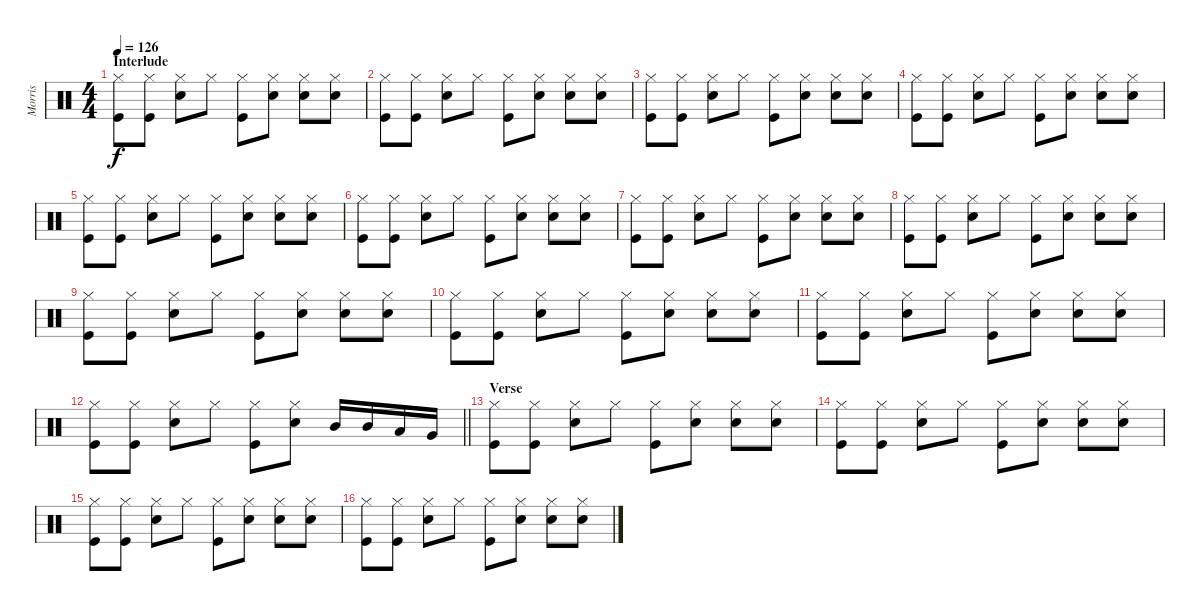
\track ("Morris" "Morris") {instrument percussion}
\staff {score}
\articulation defaults
\ts (4 4)
\section ("" "Interlude")
\tempo 126
\clef neutral
\ks c
("Hi-Hat (closed)" "Kick (hit)").8{dy f} ("Hi-Hat (closed)" "Kick (hit)").8 ("Hi-Hat (closed)" "Electric Snare (hit)").8 "Hi-Hat (closed)".8 ("Hi-Hat (closed)" "Kick (hit)").8 ("Hi-Hat (closed)" "Electric Snare (hit)").8 ("Hi-Hat (closed)" "Electric Snare (hit)").8 ("Hi-Hat (closed)" "Electric Snare (hit)").8 |
("Hi-Hat (closed)" "Kick (hit)").8 ("Hi-Hat (closed)" "Kick (hit)").8 ("Hi-Hat (closed)" "Electric Snare (hit)").8 "Hi-Hat (closed)".8 ("Hi-Hat (closed)" "Kick (hit)").8 ("Hi-Hat (closed)" "Electric Snare (hit)").8 ("Hi-Hat (closed)" "Electric Snare (hit)").8 ("Hi-Hat (closed)" "Electric Snare (hit)").8 |
("Hi-Hat (closed)" "Kick (hit)").8 ("Hi-Hat (closed)" "Kick (hit)").8 ("Hi-Hat (closed)" "Electric Snare (hit)").8 "Hi-Hat (closed)".8 ("Hi-Hat (closed)" "Kick (hit)").8 ("Hi-Hat (closed)" "Electric Snare (hit)").8 ("Hi-Hat (closed)" "Electric Snare (hit)").8 ("Hi-Hat (closed)" "Electric Snare (hit)").8 |
("Hi-Hat (closed)" "Kick (hit)").8 ("Hi-Hat (closed)" "Kick (hit)").8 ("Hi-Hat (closed)" "Electric Snare (hit)").8 "Hi-Hat (closed)".8 ("Hi-Hat (closed)" "Kick (hit)").8 ("Hi-Hat (closed)" "Electric Snare (hit)").8 ("Hi-Hat (closed)" "Electric Snare (hit)").8 ("Hi-Hat (closed)" "Electric Snare (hit)").8 |
("Hi-Hat (closed)" "Kick (hit)").8 ("Hi-Hat (closed)" "Kick (hit)").8 ("Hi-Hat (closed)" "Electric Snare (hit)").8 "Hi-Hat (closed)".8 ("Hi-Hat (closed)" "Kick (hit)").8 ("Hi-Hat (closed)" "Electric Snare (hit)").8 ("Hi-Hat (closed)" "Electric Snare (hit)").8 ("Hi-Hat (closed)" "Electric Snare (hit)").8 |
("Hi-Hat (closed)" "Kick (hit)").8 ("Hi-Hat (closed)" "Kick (hit)").8 ("Hi-Hat (closed)" "Electric Snare (hit)").8 "Hi-Hat (closed)".8 ("Hi-Hat (closed)" "Kick (hit)").8 ("Hi-Hat (closed)" "Electric Snare (hit)").8 ("Hi-Hat (closed)" "Electric Snare (hit)").8 ("Hi-Hat (closed)" "Electric Snare (hit)").8 |
("Hi-Hat (closed)" "Kick (hit)").8 ("Hi-Hat (closed)" "Kick (hit)").8 ("Hi-Hat (closed)" "Electric Snare (hit)").8 "Hi-Hat (closed)".8 ("Hi-Hat (closed)" "Kick (hit)").8 ("Hi-Hat (closed)" "Electric Snare (hit)").8 ("Hi-Hat (closed)" "Electric Snare (hit)").8 ("Hi-Hat (closed)" "Electric Snare (hit)").8 |
("Hi-Hat (closed)" "Kick (hit)").8 ("Hi-Hat (closed)" "Kick (hit)").8 ("Hi-Hat (closed)" "Electric Snare (hit)").8 "Hi-Hat (closed)".8 ("Hi-Hat (closed)" "Kick (hit)").8 ("Hi-Hat (closed)" "Electric Snare (hit)").8 ("Hi-Hat (closed)" "Electric Snare (hit)").8 ("Hi-Hat (closed)" "Electric Snare (hit)").8 |
("Hi-Hat (closed)" "Kick (hit)").8 ("Hi-Hat (closed)" "Kick (hit)").8 ("Hi-Hat (closed)" "Electric Snare (hit)").8 "Hi-Hat (closed)".8 ("Hi-Hat (closed)" "Kick (hit)").8 ("Hi-Hat (closed)" "Electric Snare (hit)").8 ("Hi-Hat (closed)" "Electric Snare (hit)").8 ("Hi-Hat (closed)" "Electric Snare (hit)").8 |
("Hi-Hat (closed)" "Kick (hit)").8 ("Hi-Hat (closed)" "Kick (hit)").8 ("Hi-Hat (closed)" "Electric Snare (hit)").8 "Hi-Hat (closed)".8 ("Hi-Hat (closed)" "Kick (hit)").8 ("Hi-Hat (closed)" "Electric Snare (hit)").8 ("Hi-Hat (closed)" "Electric Snare (hit)").8 ("Hi-Hat (closed)" "Electric Snare (hit)").8 |
("Hi-Hat (closed)" "Kick (hit)").8 ("Hi-Hat (closed)" "Kick (hit)").8 ("Hi-Hat (closed)" "Electric Snare (hit)").8 "Hi-Hat (closed)".8 ("Hi-Hat (closed)" "Kick (hit)").8 ("Hi-Hat (closed)" "Electric Snare (hit)").8 ("Hi-Hat (closed)" "Electric Snare (hit)").8 ("Hi-Hat (closed)" "Electric Snare (hit)").8 |
\barLineRight lightlight
("Hi-Hat (closed)" "Kick (hit)").8 ("Hi-Hat (closed)" "Kick (hit)").8 ("Hi-Hat (closed)" "Electric Snare (hit)").8 "Hi-Hat (closed)".8 ("Hi-Hat (closed)" "Kick (hit)").8 ("Hi-Hat (closed)" "Electric Snare (hit)").8 "Mid Tom (hit)".16 "Mid Tom (hit)".16 "Low Tom (hit)".16 "Very Low Tom (hit)".16 |
\section ("" "Verse")
("Hi-Hat (closed)" "Kick (hit)").8 ("Hi-Hat (closed)" "Kick (hit)").8 ("Hi-Hat (closed)" "Electric Snare (hit)").8 "Hi-Hat (closed)".8 ("Hi-Hat (closed)" "Kick (hit)").8 ("Hi-Hat (closed)" "Electric Snare (hit)").8 ("Hi-Hat (closed)" "Electric Snare (hit)").8 ("Hi-Hat (closed)" "Electric Snare (hit)").8 |
("Hi-Hat (closed)" "Kick (hit)").8 ("Hi-Hat (closed)" "Kick (hit)").8 ("Hi-Hat (closed)" "Electric Snare (hit)").8 "Hi-Hat (closed)".8 ("Hi-Hat (closed)" "Kick (hit)").8 ("Hi-Hat (closed)" "Electric Snare (hit)").8 ("Hi-Hat (closed)" "Electric Snare (hit)").8 ("Hi-Hat (closed)" "Electric Snare (hit)").8 |
("Hi-Hat (closed)" "Kick (hit)").8 ("Hi-Hat (closed)" "Kick (hit)").8 ("Hi-Hat (closed)" "Electric Snare (hit)").8 "Hi-Hat (closed)".8 ("Hi-Hat (closed)" "Kick (hit)").8 ("Hi-Hat (closed)" "Electric Snare (hit)").8 ("Hi-Hat (closed)" "Electric Snare (hit)").8 ("Hi-Hat (closed)" "Electric Snare (hit)").8 |
("Hi-Hat (closed)" "Kick (hit)").8 ("Hi-Hat (closed)" "Kick (hit)").8 ("Hi-Hat (closed)" "Electric Snare (hit)").8 "Hi-Hat (closed)".8 ("Hi-Hat (closed)" "Kick (hit)").8 ("Hi-Hat (closed)" "Electric Snare (hit)").8 ("Hi-Hat (closed)" "Electric Snare (hit)").8 ("Hi-Hat (closed)" "Electric Snare (hit)").8
